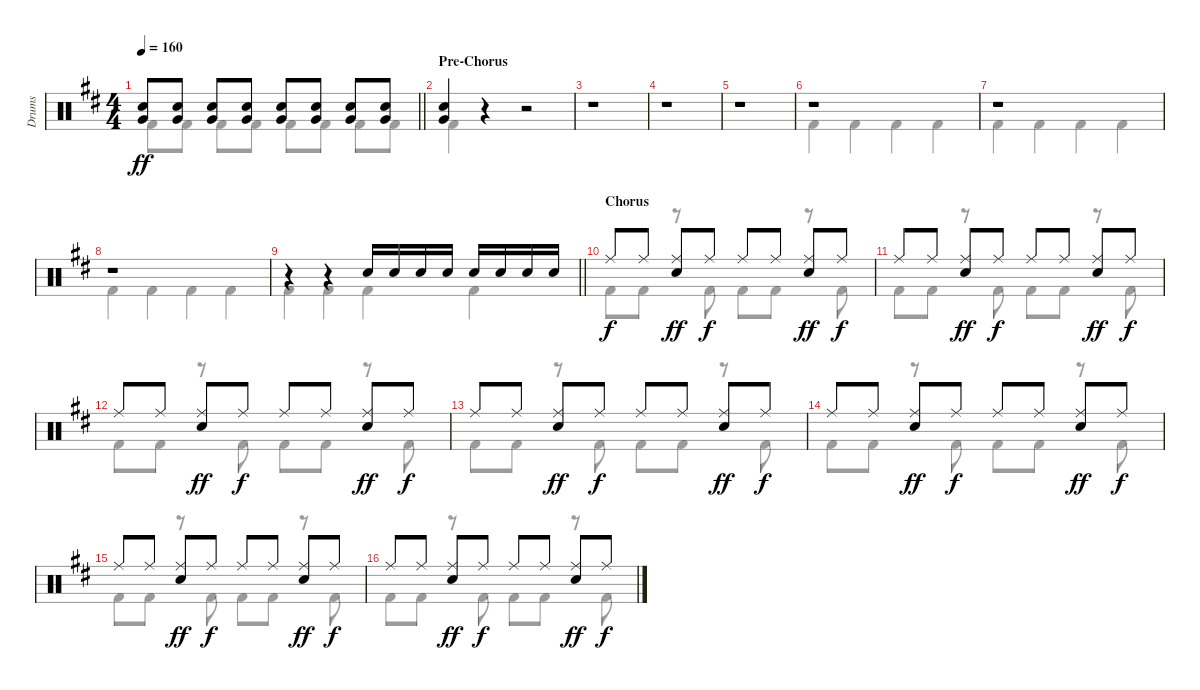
\track ("Drums" "Drums") {instrument percussion}
\staff {score}
\articulation defaults
\voice
\ts (4 4)
\tempo 160
\clef neutral
\barLineRight lightlight
\ks bminor
("Very Low Tom (hit)" "Electric Snare (hit)").8{dy ff} ("Very Low Tom (hit)" "Electric Snare (hit)").8 ("Very Low Tom (hit)" "Electric Snare (hit)").8 ("Very Low Tom (hit)" "Electric Snare (hit)").8 ("Very Low Tom (hit)" "Electric Snare (hit)").8 ("Very Low Tom (hit)" "Electric Snare (hit)").8 ("Very Low Tom (hit)" "Electric Snare (hit)").8 ("Very Low Tom (hit)" "Electric Snare (hit)").8 |
\section ("" "Pre-Chorus")
("Very Low Tom (hit)" "Electric Snare (hit)").4 r.4 r.2 |
r.1 |
r.1 |
r.1 |
r.1 |
r.1 |
r.1 |
\barLineRight lightlight
r.4 r.4 "Electric Snare (hit)".16 "Electric Snare (hit)".16 "Electric Snare (hit)".16 "Electric Snare (hit)".16 "Electric Snare (hit)".16 "Electric Snare (hit)".16 "Electric Snare (hit)".16 "Electric Snare (hit)".16 |
\section ("" "Chorus")
"Ride (middle)".8{dy f} "Ride (middle)".8 ("Ride (middle)" "Electric Snare (hit)").8{dy ff} "Ride (middle)".8{dy f} "Ride (middle)".8 "Ride (middle)".8 ("Ride (middle)" "Electric Snare (hit)").8{dy ff} "Ride (middle)".8{dy f} |
"Ride (middle)".8 "Ride (middle)".8 ("Ride (middle)" "Electric Snare (hit)").8{dy ff} "Ride (middle)".8{dy f} "Ride (middle)".8 "Ride (middle)".8 ("Ride (middle)" "Electric Snare (hit)").8{dy ff} "Ride (middle)".8{dy f} |
"Ride (middle)".8 "Ride (middle)".8 ("Ride (middle)" "Electric Snare (hit)").8{dy ff} "Ride (middle)".8{dy f} "Ride (middle)".8 "Ride (middle)".8 ("Ride (middle)" "Electric Snare (hit)").8{dy ff} "Ride (middle)".8{dy f} |
"Ride (middle)".8 "Ride (middle)".8 ("Ride (middle)" "Electric Snare (hit)").8{dy ff} "Ride (middle)".8{dy f} "Ride (middle)".8 "Ride (middle)".8 ("Ride (middle)" "Electric Snare (hit)").8{dy ff} "Ride (middle)".8{dy f} |
"Ride (middle)".8 "Ride (middle)".8 ("Ride (middle)" "Electric Snare (hit)").8{dy ff} "Ride (middle)".8{dy f} "Ride (middle)".8 "Ride (middle)".8 ("Ride (middle)" "Electric Snare (hit)").8{dy ff} "Ride (middle)".8{dy f} |
"Ride (middle)".8 "Ride (middle)".8 ("Ride (middle)" "Electric Snare (hit)").8{dy ff} "Ride (middle)".8{dy f} "Ride (middle)".8 "Ride (middle)".8 ("Ride (middle)" "Electric Snare (hit)").8{dy ff} "Ride (middle)".8{dy f} |
"Ride (middle)".8 "Ride (middle)".8 ("Ride (middle)" "Electric Snare (hit)").8{dy ff} "Ride (middle)".8{dy f} "Ride (middle)".8 "Ride (middle)".8 ("Ride (middle)" "Electric Snare (hit)").8{dy ff} "Ride (middle)".8{dy f}
\voice
\clef neutral
\ottava regular
\simile none
\barLineRight lightlight
\ks bminor "Kick (hit) 2".8{dy ff} "Kick (hit) 2".8 "Kick (hit) 2".8 "Kick (hit) 2".8 "Kick (hit) 2".8 "Kick (hit) 2".8 "Kick (hit) 2".8 "Kick (hit) 2".8
|
"Kick (hit) 2".4 r.4 r.2 |
r.1 |
r.1 |
r.1 |
"Kick (hit) 2".4 "Kick (hit) 2".4 "Kick (hit) 2".4 "Kick (hit) 2".4 |
"Kick (hit) 2".4 "Kick (hit) 2".4 "Kick (hit) 2".4 "Kick (hit) 2".4 |
"Kick (hit) 2".4 "Kick (hit) 2".4 "Kick (hit) 2".4 "Kick (hit) 2".4 |
\barLineRight lightlight "Kick (hit) 2".4 "Kick (hit) 2".4 "Kick (hit) 2".4 "Kick (hit) 2".4
|
"Kick (hit) 2".8 "Kick (hit) 2".8 r.8 "Kick (hit) 2".8 "Kick (hit) 2".8 "Kick (hit) 2".8 r.8 "Kick (hit) 2".8 |
"Kick (hit) 2".8 "Kick (hit) 2".8 r.8 "Kick (hit) 2".8 "Kick (hit) 2".8 "Kick (hit) 2".8 r.8 "Kick (hit) 2".8 |
"Kick (hit) 2".8 "Kick (hit) 2".8 r.8 "Kick (hit) 2".8 "Kick (hit) 2".8 "Kick (hit) 2".8 r.8 "Kick (hit) 2".8 |
"Kick (hit) 2".8 "Kick (hit) 2".8 r.8 "Kick (hit) 2".8 "Kick (hit) 2".8 "Kick (hit) 2".8 r.8 "Kick (hit) 2".8 |
"Kick (hit) 2".8 "Kick (hit) 2".8 r.8 "Kick (hit) 2".8 "Kick (hit) 2".8 "Kick (hit) 2".8 r.8 "Kick (hit) 2".8 |
"Kick (hit) 2".8 "Kick (hit) 2".8 r.8 "Kick (hit) 2".8 "Kick (hit) 2".8 "Kick (hit) 2".8 r.8 "Kick (hit) 2".8 |
"Kick (hit) 2".8 "Kick (hit) 2".8 r.8 "Kick (hit) 2".8 "Kick (hit) 2".8 "Kick (hit) 2".8 r.8 "Kick (hit) 2".8
